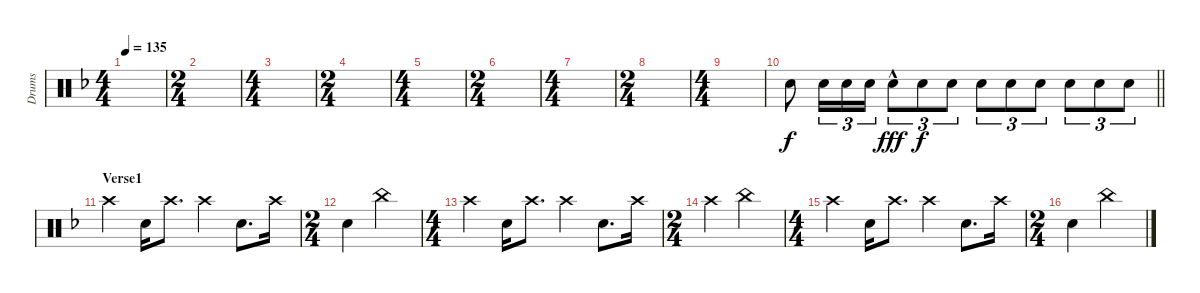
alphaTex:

\track ("Drums" "Drums") {instrument percussion}
\staff {score}
\articulation defaults
\ts (4 4)
\tempo 135
\clef neutral
\ks dminor
|
\ts (2 4)
|
\ts (4 4)
|
\ts (2 4)
|
\ts (4 4)
|
\ts (2 4)
|
\ts (4 4)
|
\ts (2 4)
|
\ts (4 4)
|
\barLineRight lightlight "Snare (hit) 2".8 "Snare (hit) 2".16{tu (3 2)} "Snare (hit) 2".16{tu (3 2)} "Snare (hit) 2".16{tu (3 2)} "Snare (hit) 2"{hac}.8{tu (3 2) dy fff} "Snare (hit) 2".8{tu (3 2) dy f} "Snare (hit) 2".8{tu (3 2)} "Snare (hit) 2".8{tu (3 2)} "Snare (hit) 2".8{tu (3 2)} "Snare (hit) 2".8{tu (3 2)} "Snare (hit) 2".8{tu (3 2)} "Snare (hit) 2".8{tu (3 2)} "Snare (hit) 2".8{tu (3 2)}
|
\section ("" "Verse1")
"Crash high (hit)".4 "Snare (hit) 2".16 "Crash high (hit)".8{d} "Crash high (hit)".4 "Snare (hit) 2".8{d} "Crash high (hit)".16 |
\ts (2 4)
"Snare (hit) 2".4 "China (hit)".4 |
\ts (4 4)
"Crash high (hit)".4 "Snare (hit) 2".16 "Crash high (hit)".8{d} "Crash high (hit)".4 "Snare (hit) 2".8{d} "Crash high (hit)".16 |
\ts (2 4)
"Crash high (hit)".4 "China (hit)".4 |
\ts (4 4)
"Crash high (hit)".4 "Snare (hit) 2".16 "Crash high (hit)".8{d} "Crash high (hit)".4 "Snare (hit) 2".8{d} "Crash high (hit)".16 |
\ts (2 4)
"Snare (hit) 2".4 "China (hit)".4
